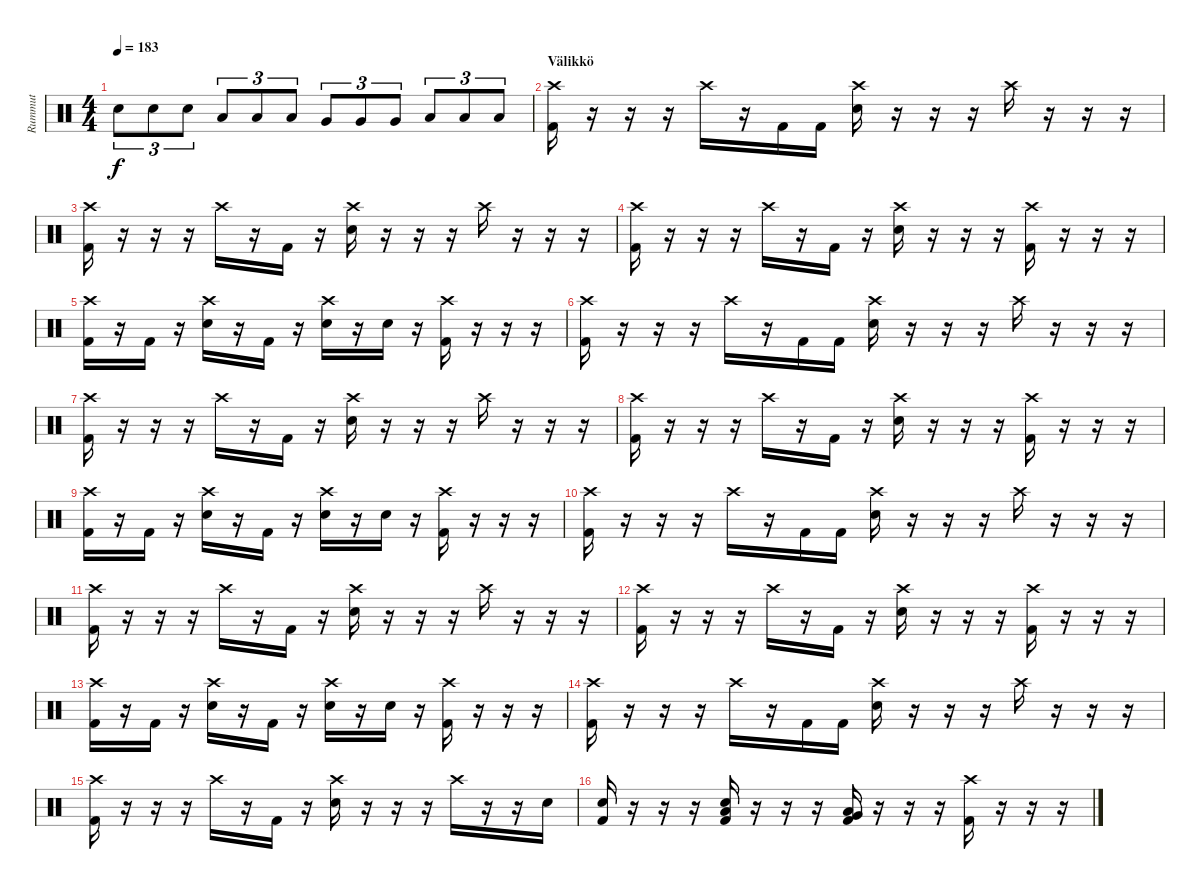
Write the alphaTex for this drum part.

\track ("Rummut" "Rummut") {instrument percussion}
\staff {score}
\articulation defaults
\ts (4 4)
\tempo 183
\clef neutral
\ks c "Electric Snare (hit)".8{tu (3 2) dy f} "Electric Snare (hit)".8{tu (3 2)} "Electric Snare (hit)".8{tu (3 2)} "Low Tom (hit)".8{tu (3 2)} "Low Tom (hit)".8{tu (3 2)} "Low Tom (hit)".8{tu (3 2)} "Very Low Tom (hit)".8{tu (3 2)} "Very Low Tom (hit)".8{tu (3 2)} "Very Low Tom (hit)".8{tu (3 2)} "Low Floor Tom (hit)".8{tu (3 2)} "Low Floor Tom (hit)".8{tu (3 2)} "Low Floor Tom (hit)".8{tu (3 2)}
|
\section ("" "Välikkö")
("Crash high (hit)" "Kick (hit) 2").16 r.16 r.16 r.16 "Crash high (hit)".16 r.16 "Kick (hit) 2".16 "Kick (hit) 2".16 ("Crash high (hit)" "Electric Snare (hit)").16 r.16 r.16 r.16 "Crash high (hit)".16 r.16 r.16 r.16 |
("Crash high (hit)" "Kick (hit) 2").16 r.16 r.16 r.16 "Crash high (hit)".16 r.16 "Kick (hit) 2".16 r.16 ("Crash high (hit)" "Electric Snare (hit)").16 r.16 r.16 r.16 "Crash high (hit)".16 r.16 r.16 r.16 |
("Crash high (hit)" "Kick (hit) 2").16 r.16 r.16 r.16 "Crash high (hit)".16 r.16 "Kick (hit) 2".16 r.16 ("Crash high (hit)" "Electric Snare (hit)").16 r.16 r.16 r.16 ("Crash high (hit)" "Kick (hit) 2").16 r.16 r.16 r.16 |
("Crash high (hit)" "Kick (hit) 2").16 r.16 "Kick (hit) 2".16 r.16 ("Crash high (hit)" "Electric Snare (hit)").16 r.16 "Kick (hit) 2".16 r.16 ("Crash high (hit)" "Electric Snare (hit)").16 r.16 "Electric Snare (hit)".16 r.16 ("Crash high (hit)" "Kick (hit) 2").16 r.16 r.16 r.16 |
("Crash high (hit)" "Kick (hit) 2").16 r.16 r.16 r.16 "Crash high (hit)".16 r.16 "Kick (hit) 2".16 "Kick (hit) 2".16 ("Crash high (hit)" "Electric Snare (hit)").16 r.16 r.16 r.16 "Crash high (hit)".16 r.16 r.16 r.16 |
("Crash high (hit)" "Kick (hit) 2").16 r.16 r.16 r.16 "Crash high (hit)".16 r.16 "Kick (hit) 2".16 r.16 ("Crash high (hit)" "Electric Snare (hit)").16 r.16 r.16 r.16 "Crash high (hit)".16 r.16 r.16 r.16 |
("Crash high (hit)" "Kick (hit) 2").16 r.16 r.16 r.16 "Crash high (hit)".16 r.16 "Kick (hit) 2".16 r.16 ("Crash high (hit)" "Electric Snare (hit)").16 r.16 r.16 r.16 ("Crash high (hit)" "Kick (hit) 2").16 r.16 r.16 r.16 |
("Crash high (hit)" "Kick (hit) 2").16 r.16 "Kick (hit) 2".16 r.16 ("Crash high (hit)" "Electric Snare (hit)").16 r.16 "Kick (hit) 2".16 r.16 ("Crash high (hit)" "Electric Snare (hit)").16 r.16 "Electric Snare (hit)".16 r.16 ("Crash high (hit)" "Kick (hit) 2").16 r.16 r.16 r.16 |
("Crash high (hit)" "Kick (hit) 2").16 r.16 r.16 r.16 "Crash high (hit)".16 r.16 "Kick (hit) 2".16 "Kick (hit) 2".16 ("Crash high (hit)" "Electric Snare (hit)").16 r.16 r.16 r.16 "Crash high (hit)".16 r.16 r.16 r.16 |
("Crash high (hit)" "Kick (hit) 2").16 r.16 r.16 r.16 "Crash high (hit)".16 r.16 "Kick (hit) 2".16 r.16 ("Crash high (hit)" "Electric Snare (hit)").16 r.16 r.16 r.16 "Crash high (hit)".16 r.16 r.16 r.16 |
("Crash high (hit)" "Kick (hit) 2").16 r.16 r.16 r.16 "Crash high (hit)".16 r.16 "Kick (hit) 2".16 r.16 ("Crash high (hit)" "Electric Snare (hit)").16 r.16 r.16 r.16 ("Crash high (hit)" "Kick (hit) 2").16 r.16 r.16 r.16 |
("Crash high (hit)" "Kick (hit) 2").16 r.16 "Kick (hit) 2".16 r.16 ("Crash high (hit)" "Electric Snare (hit)").16 r.16 "Kick (hit) 2".16 r.16 ("Crash high (hit)" "Electric Snare (hit)").16 r.16 "Electric Snare (hit)".16 r.16 ("Crash high (hit)" "Kick (hit) 2").16 r.16 r.16 r.16 |
("Crash high (hit)" "Kick (hit) 2").16 r.16 r.16 r.16 "Crash high (hit)".16 r.16 "Kick (hit) 2".16 "Kick (hit) 2".16 ("Crash high (hit)" "Electric Snare (hit)").16 r.16 r.16 r.16 "Crash high (hit)".16 r.16 r.16 r.16 |
("Crash high (hit)" "Kick (hit) 2").16 r.16 r.16 r.16 "Crash high (hit)".16 r.16 "Kick (hit) 2".16 r.16 ("Crash high (hit)" "Electric Snare (hit)").16 r.16 r.16 r.16 "Crash high (hit)".16 r.16 r.16 "Electric Snare (hit)".16 |
("Electric Snare (hit)" "Kick (hit) 2").16 r.16 r.16 r.16 ("Electric Snare (hit)" "Low Tom (hit)" "Kick (hit) 2").16 r.16 r.16 r.16 ("Low Tom (hit)" "Very Low Tom (hit)" "Kick (hit) 2").16 r.16 r.16 r.16 ("Crash high (hit)" "Kick (hit) 2").16 r.16 r.16 r.16
